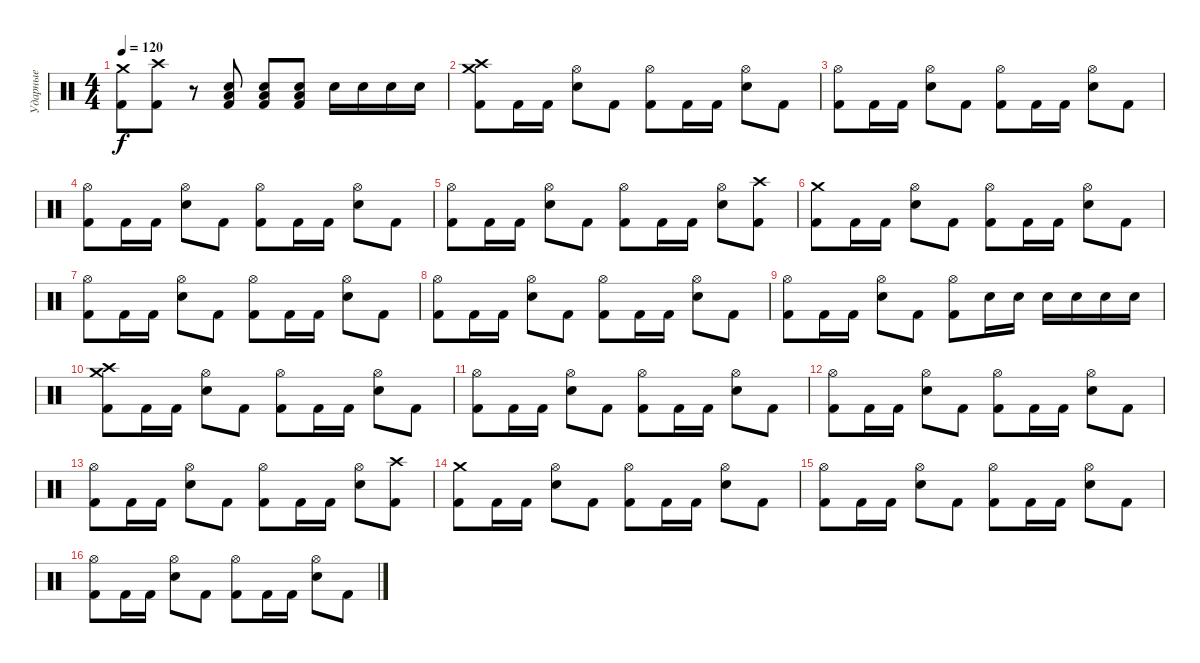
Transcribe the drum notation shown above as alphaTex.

\track ("Ударные" "Ударные") {instrument percussion}
\staff {score}
\articulation defaults
\ts (4 4)
\tempo 120
\clef neutral
\ks c
("Crash medium (hit)" "Kick (hit) 2").8{dy f} ("Crash high (hit)" "Kick (hit) 2").8 r.8 ("Kick (hit) 2" "Low Tom (hit)" "Electric Snare (hit)").8 ("Kick (hit) 2" "Low Tom (hit)" "Electric Snare (hit)").8 ("Kick (hit) 2" "Low Tom (hit)" "Electric Snare (hit)").8 "Electric Snare (hit)".16 "Electric Snare (hit)".16 "Electric Snare (hit)".16 "Electric Snare (hit)".16 |
("Crash medium (hit)" "Crash high (hit)" "Kick (hit) 2").8 "Kick (hit) 2".16 "Kick (hit) 2".16 ("Hi-Hat (open)" "Electric Snare (hit)").8 "Kick (hit) 2".8 ("Hi-Hat (open)" "Kick (hit) 2").8 "Kick (hit) 2".16 "Kick (hit) 2".16 ("Hi-Hat (open)" "Electric Snare (hit)").8 "Kick (hit) 2".8 |
("Hi-Hat (open)" "Kick (hit) 2").8 "Kick (hit) 2".16 "Kick (hit) 2".16 ("Hi-Hat (open)" "Electric Snare (hit)").8 "Kick (hit) 2".8 ("Hi-Hat (open)" "Kick (hit) 2").8 "Kick (hit) 2".16 "Kick (hit) 2".16 ("Hi-Hat (open)" "Electric Snare (hit)").8 "Kick (hit) 2".8 |
("Hi-Hat (open)" "Kick (hit) 2").8 "Kick (hit) 2".16 "Kick (hit) 2".16 ("Hi-Hat (open)" "Electric Snare (hit)").8 "Kick (hit) 2".8 ("Hi-Hat (open)" "Kick (hit) 2").8 "Kick (hit) 2".16 "Kick (hit) 2".16 ("Hi-Hat (open)" "Electric Snare (hit)").8 "Kick (hit) 2".8 |
("Hi-Hat (open)" "Kick (hit) 2").8 "Kick (hit) 2".16 "Kick (hit) 2".16 ("Hi-Hat (open)" "Electric Snare (hit)").8 "Kick (hit) 2".8 ("Hi-Hat (open)" "Kick (hit) 2").8 "Kick (hit) 2".16 "Kick (hit) 2".16 ("Hi-Hat (open)" "Electric Snare (hit)").8 ("Crash high (hit)" "Kick (hit) 2").8 |
("Crash medium (hit)" "Kick (hit) 2").8 "Kick (hit) 2".16 "Kick (hit) 2".16 ("Hi-Hat (open)" "Electric Snare (hit)").8 "Kick (hit) 2".8 ("Hi-Hat (open)" "Kick (hit) 2").8 "Kick (hit) 2".16 "Kick (hit) 2".16 ("Hi-Hat (open)" "Electric Snare (hit)").8 "Kick (hit) 2".8 |
("Hi-Hat (open)" "Kick (hit) 2").8 "Kick (hit) 2".16 "Kick (hit) 2".16 ("Hi-Hat (open)" "Electric Snare (hit)").8 "Kick (hit) 2".8 ("Hi-Hat (open)" "Kick (hit) 2").8 "Kick (hit) 2".16 "Kick (hit) 2".16 ("Hi-Hat (open)" "Electric Snare (hit)").8 "Kick (hit) 2".8 |
("Hi-Hat (open)" "Kick (hit) 2").8 "Kick (hit) 2".16 "Kick (hit) 2".16 ("Hi-Hat (open)" "Electric Snare (hit)").8 "Kick (hit) 2".8 ("Hi-Hat (open)" "Kick (hit) 2").8 "Kick (hit) 2".16 "Kick (hit) 2".16 ("Hi-Hat (open)" "Electric Snare (hit)").8 "Kick (hit) 2".8 |
("Hi-Hat (open)" "Kick (hit) 2").8 "Kick (hit) 2".16 "Kick (hit) 2".16 ("Hi-Hat (open)" "Electric Snare (hit)").8 "Kick (hit) 2".8 ("Hi-Hat (open)" "Kick (hit) 2").8 "Electric Snare (hit)".16 "Electric Snare (hit)".16 "Electric Snare (hit)".16 "Electric Snare (hit)".16 "Electric Snare (hit)".16 "Electric Snare (hit)".16 |
("Crash medium (hit)" "Crash high (hit)" "Kick (hit) 2").8 "Kick (hit) 2".16 "Kick (hit) 2".16 ("Hi-Hat (open)" "Electric Snare (hit)").8 "Kick (hit) 2".8 ("Hi-Hat (open)" "Kick (hit) 2").8 "Kick (hit) 2".16 "Kick (hit) 2".16 ("Hi-Hat (open)" "Electric Snare (hit)").8 "Kick (hit) 2".8 |
("Hi-Hat (open)" "Kick (hit) 2").8 "Kick (hit) 2".16 "Kick (hit) 2".16 ("Hi-Hat (open)" "Electric Snare (hit)").8 "Kick (hit) 2".8 ("Hi-Hat (open)" "Kick (hit) 2").8 "Kick (hit) 2".16 "Kick (hit) 2".16 ("Hi-Hat (open)" "Electric Snare (hit)").8 "Kick (hit) 2".8 |
("Hi-Hat (open)" "Kick (hit) 2").8 "Kick (hit) 2".16 "Kick (hit) 2".16 ("Hi-Hat (open)" "Electric Snare (hit)").8 "Kick (hit) 2".8 ("Hi-Hat (open)" "Kick (hit) 2").8 "Kick (hit) 2".16 "Kick (hit) 2".16 ("Hi-Hat (open)" "Electric Snare (hit)").8 "Kick (hit) 2".8 |
("Hi-Hat (open)" "Kick (hit) 2").8 "Kick (hit) 2".16 "Kick (hit) 2".16 ("Hi-Hat (open)" "Electric Snare (hit)").8 "Kick (hit) 2".8 ("Hi-Hat (open)" "Kick (hit) 2").8 "Kick (hit) 2".16 "Kick (hit) 2".16 ("Hi-Hat (open)" "Electric Snare (hit)").8 ("Crash high (hit)" "Kick (hit) 2").8 |
("Crash medium (hit)" "Kick (hit) 2").8 "Kick (hit) 2".16 "Kick (hit) 2".16 ("Hi-Hat (open)" "Electric Snare (hit)").8 "Kick (hit) 2".8 ("Hi-Hat (open)" "Kick (hit) 2").8 "Kick (hit) 2".16 "Kick (hit) 2".16 ("Hi-Hat (open)" "Electric Snare (hit)").8 "Kick (hit) 2".8 |
("Hi-Hat (open)" "Kick (hit) 2").8 "Kick (hit) 2".16 "Kick (hit) 2".16 ("Hi-Hat (open)" "Electric Snare (hit)").8 "Kick (hit) 2".8 ("Hi-Hat (open)" "Kick (hit) 2").8 "Kick (hit) 2".16 "Kick (hit) 2".16 ("Hi-Hat (open)" "Electric Snare (hit)").8 "Kick (hit) 2".8 |
("Hi-Hat (open)" "Kick (hit) 2").8 "Kick (hit) 2".16 "Kick (hit) 2".16 ("Hi-Hat (open)" "Electric Snare (hit)").8 "Kick (hit) 2".8 ("Hi-Hat (open)" "Kick (hit) 2").8 "Kick (hit) 2".16 "Kick (hit) 2".16 ("Hi-Hat (open)" "Electric Snare (hit)").8 "Kick (hit) 2".8
